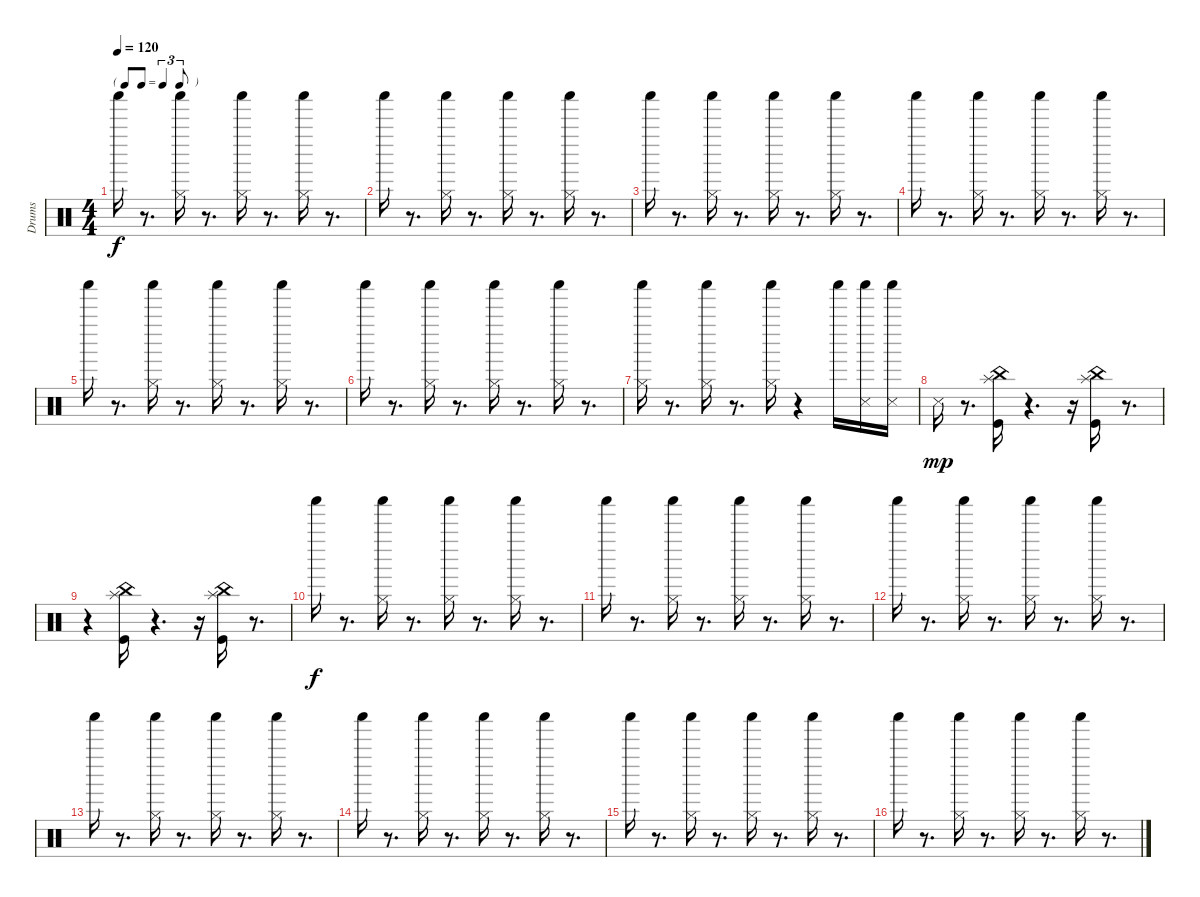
\track ("Drums  " "Drums  ") {instrument percussion}
\staff {score}
\articulation defaults
\ts (4 4)
\tf triplet8th
\tempo 120
\clef neutral
\ks c "Shaker (hit)".16{dy f}
r.8{d} ("Shaker (hit)" "Hi-Hat (closed)").16 r.8{d} ("Shaker (hit)" "Hi-Hat (closed)").16 r.8{d} ("Shaker (hit)" "Hi-Hat (closed)").16 r.8{d} |
"Shaker (hit)".16 r.8{d} ("Shaker (hit)" "Hi-Hat (closed)").16 r.8{d} ("Shaker (hit)" "Hi-Hat (closed)").16 r.8{d} ("Shaker (hit)" "Hi-Hat (closed)").16 r.8{d} |
"Shaker (hit)".16 r.8{d} ("Shaker (hit)" "Hi-Hat (closed)").16 r.8{d} ("Shaker (hit)" "Hi-Hat (closed)").16 r.8{d} ("Shaker (hit)" "Hi-Hat (closed)").16 r.8{d} |
"Shaker (hit)".16 r.8{d} ("Shaker (hit)" "Hi-Hat (closed)").16 r.8{d} ("Shaker (hit)" "Hi-Hat (closed)").16 r.8{d} ("Shaker (hit)" "Hi-Hat (closed)").16 r.8{d} |
"Shaker (hit)".16 r.8{d} ("Shaker (hit)" "Hi-Hat (closed)").16 r.8{d} ("Shaker (hit)" "Hi-Hat (closed)").16 r.8{d} ("Shaker (hit)" "Hi-Hat (closed)").16 r.8{d} |
"Shaker (hit)".16 r.8{d} ("Shaker (hit)" "Hi-Hat (closed)").16 r.8{d} ("Shaker (hit)" "Hi-Hat (closed)").16 r.8{d} ("Shaker (hit)" "Hi-Hat (closed)").16 r.8{d} |
("Shaker (hit)" "Hi-Hat (closed)").16 r.8{d} ("Shaker (hit)" "Hi-Hat (closed)").16 r.8{d} ("Shaker (hit)" "Hi-Hat (closed)").16 r.4 "Shaker (hit)".16 ("Snare (side stick) 3" "Shaker (hit)").16 ("Snare (side stick) 3" "Shaker (hit)").16 |
"Snare (side stick) 3".16{dy mp} r.8{d} ("Splash (hit)" "Kick (hit)" "China (hit)").16 r.4{d} r.16 ("Splash (hit)" "Kick (hit)" "China (hit)").16 r.8{d} |
r.4 ("Splash (hit)" "Kick (hit)" "China (hit)").16 r.4{d} r.16 ("Splash (hit)" "Kick (hit)" "China (hit)").16 r.8{d} |
"Shaker (hit)".16{dy f} r.8{d} ("Shaker (hit)" "Hi-Hat (closed)").16 r.8{d} ("Shaker (hit)" "Hi-Hat (closed)").16 r.8{d} ("Shaker (hit)" "Hi-Hat (closed)").16 r.8{d} |
"Shaker (hit)".16 r.8{d} ("Shaker (hit)" "Hi-Hat (closed)").16 r.8{d} ("Shaker (hit)" "Hi-Hat (closed)").16 r.8{d} ("Shaker (hit)" "Hi-Hat (closed)").16 r.8{d} |
"Shaker (hit)".16 r.8{d} ("Shaker (hit)" "Hi-Hat (closed)").16 r.8{d} ("Shaker (hit)" "Hi-Hat (closed)").16 r.8{d} ("Shaker (hit)" "Hi-Hat (closed)").16 r.8{d} |
"Shaker (hit)".16 r.8{d} ("Shaker (hit)" "Hi-Hat (closed)").16 r.8{d} ("Shaker (hit)" "Hi-Hat (closed)").16 r.8{d} ("Shaker (hit)" "Hi-Hat (closed)").16 r.8{d} |
"Shaker (hit)".16 r.8{d} ("Shaker (hit)" "Hi-Hat (closed)").16 r.8{d} ("Shaker (hit)" "Hi-Hat (closed)").16 r.8{d} ("Shaker (hit)" "Hi-Hat (closed)").16 r.8{d} |
"Shaker (hit)".16 r.8{d} ("Shaker (hit)" "Hi-Hat (closed)").16 r.8{d} ("Shaker (hit)" "Hi-Hat (closed)").16 r.8{d} ("Shaker (hit)" "Hi-Hat (closed)").16 r.8{d} |
"Shaker (hit)".16 r.8{d} ("Shaker (hit)" "Hi-Hat (closed)").16 r.8{d} ("Shaker (hit)" "Hi-Hat (closed)").16 r.8{d} ("Shaker (hit)" "Hi-Hat (closed)").16 r.8{d}
